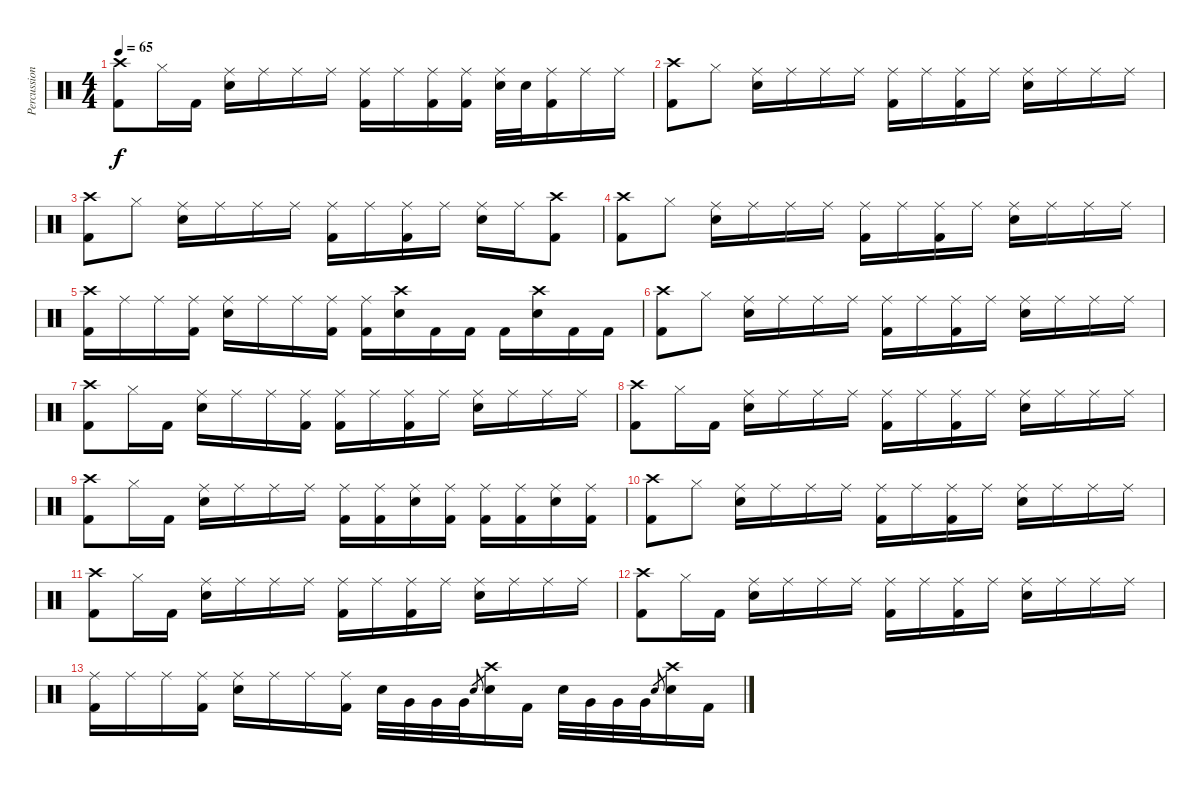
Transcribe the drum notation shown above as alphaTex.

\track ("Percussion" "Percussion") {instrument percussion}
\staff {score}
\articulation defaults
\ts (4 4)
\tempo 65
\clef neutral
\ks c
("Crash high (hit)" "Kick (hit) 2").8{dy f} "Hi-Hat (closed)".16 "Kick (hit) 2".16 ("Ride (middle)" "Electric Snare (hit)").16 "Ride (middle)".16 "Ride (middle)".16 "Ride (middle)".16 ("Ride (middle)" "Kick (hit) 2").16 "Ride (middle)".16 ("Ride (middle)" "Kick (hit) 2").16 ("Ride (middle)" "Kick (hit) 2").16 ("Ride (middle)" "Electric Snare (hit)").32 "Electric Snare (hit)".32 ("Ride (middle)" "Kick (hit) 2").16 "Ride (middle)".16 "Ride (middle)".16 |
("Crash high (hit)" "Kick (hit) 2").8 "Hi-Hat (closed)".8 ("Ride (middle)" "Electric Snare (hit)").16 "Ride (middle)".16 "Ride (middle)".16 "Ride (middle)".16 ("Ride (middle)" "Kick (hit) 2").16 "Ride (middle)".16 ("Ride (middle)" "Kick (hit) 2").16 "Ride (middle)".16 ("Ride (middle)" "Electric Snare (hit)").16 "Ride (middle)".16 "Ride (middle)".16 "Ride (middle)".16 |
("Crash high (hit)" "Kick (hit) 2").8 "Hi-Hat (closed)".8 ("Ride (middle)" "Electric Snare (hit)").16 "Ride (middle)".16 "Ride (middle)".16 "Ride (middle)".16 ("Ride (middle)" "Kick (hit) 2").16 "Ride (middle)".16 ("Ride (middle)" "Kick (hit) 2").16 "Ride (middle)".16 ("Ride (middle)" "Electric Snare (hit)").16 "Ride (middle)".16 ("Crash high (hit)" "Kick (hit) 2").8 |
("Crash high (hit)" "Kick (hit) 2").8 "Hi-Hat (closed)".8 ("Ride (middle)" "Electric Snare (hit)").16 "Ride (middle)".16 "Ride (middle)".16 "Ride (middle)".16 ("Ride (middle)" "Kick (hit) 2").16 "Ride (middle)".16 ("Ride (middle)" "Kick (hit) 2").16 "Ride (middle)".16 ("Ride (middle)" "Electric Snare (hit)").16 "Ride (middle)".16 "Ride (middle)".16 "Ride (middle)".16 |
("Crash high (hit)" "Kick (hit) 2").16 "Ride (middle)".16 "Ride (middle)".16 ("Ride (middle)" "Kick (hit) 2").16 ("Ride (middle)" "Electric Snare (hit)").16 "Ride (middle)".16 "Ride (middle)".16 ("Ride (middle)" "Kick (hit) 2").16 ("Ride (middle)" "Kick (hit) 2").16 ("Crash high (hit)" "Electric Snare (hit)").16 "Kick (hit) 2".16 "Kick (hit) 2".16 "Kick (hit) 2".16 ("Crash high (hit)" "Electric Snare (hit)").16 "Kick (hit) 2".16 "Kick (hit) 2".16 |
("Crash high (hit)" "Kick (hit) 2").8 "Hi-Hat (closed)".8 ("Ride (middle)" "Electric Snare (hit)").16 "Ride (middle)".16 "Ride (middle)".16 "Ride (middle)".16 ("Ride (middle)" "Kick (hit) 2").16 "Ride (middle)".16 ("Ride (middle)" "Kick (hit) 2").16 "Ride (middle)".16 ("Ride (middle)" "Electric Snare (hit)").16 "Ride (middle)".16 "Ride (middle)".16 "Ride (middle)".16 |
("Crash high (hit)" "Kick (hit) 2").8 "Hi-Hat (closed)".16 "Kick (hit) 2".16 ("Ride (middle)" "Electric Snare (hit)").16 "Ride (middle)".16 "Ride (middle)".16 ("Ride (middle)" "Kick (hit) 2").16 ("Ride (middle)" "Kick (hit) 2").16 "Ride (middle)".16 ("Ride (middle)" "Kick (hit) 2").16 "Ride (middle)".16 ("Ride (middle)" "Electric Snare (hit)").16 "Ride (middle)".16 "Ride (middle)".16 "Ride (middle)".16 |
("Crash high (hit)" "Kick (hit) 2").8 "Hi-Hat (closed)".16 "Kick (hit) 2".16 ("Ride (middle)" "Electric Snare (hit)").16 "Ride (middle)".16 "Ride (middle)".16 "Ride (middle)".16 ("Ride (middle)" "Kick (hit) 2").16 "Ride (middle)".16 ("Ride (middle)" "Kick (hit) 2").16 "Ride (middle)".16 ("Ride (middle)" "Electric Snare (hit)").16 "Ride (middle)".16 "Ride (middle)".16 "Ride (middle)".16 |
("Crash high (hit)" "Kick (hit) 2").8 "Hi-Hat (closed)".16 "Kick (hit) 2".16 ("Ride (middle)" "Electric Snare (hit)").16 "Ride (middle)".16 "Ride (middle)".16 "Ride (middle)".16 ("Ride (middle)" "Kick (hit) 2").16 ("Ride (middle)" "Kick (hit) 2").16 ("Ride (middle)" "Electric Snare (hit)").16 ("Ride (middle)" "Kick (hit) 2").16 ("Ride (middle)" "Kick (hit) 2").16 ("Ride (middle)" "Kick (hit) 2").16 ("Ride (middle)" "Electric Snare (hit)").16 ("Ride (middle)" "Kick (hit) 2").16 |
("Crash high (hit)" "Kick (hit) 2").8 "Hi-Hat (closed)".8 ("Ride (middle)" "Electric Snare (hit)").16 "Ride (middle)".16 "Ride (middle)".16 "Ride (middle)".16 ("Ride (middle)" "Kick (hit) 2").16 "Ride (middle)".16 ("Ride (middle)" "Kick (hit) 2").16 "Ride (middle)".16 ("Ride (middle)" "Electric Snare (hit)").16 "Ride (middle)".16 "Ride (middle)".16 "Ride (middle)".16 |
("Crash high (hit)" "Kick (hit) 2").8 "Hi-Hat (closed)".16 "Kick (hit) 2".16 ("Ride (middle)" "Electric Snare (hit)").16 "Ride (middle)".16 "Ride (middle)".16 "Ride (middle)".16 ("Ride (middle)" "Kick (hit) 2").16 "Ride (middle)".16 ("Ride (middle)" "Kick (hit) 2").16 "Ride (middle)".16 ("Ride (middle)" "Electric Snare (hit)").16 "Ride (middle)".16 "Ride (middle)".16 "Ride (middle)".16 |
("Crash high (hit)" "Kick (hit) 2").8 "Hi-Hat (closed)".16 "Kick (hit) 2".16 ("Ride (middle)" "Electric Snare (hit)").16 "Ride (middle)".16 "Ride (middle)".16 "Ride (middle)".16 ("Ride (middle)" "Kick (hit) 2").16 "Ride (middle)".16 ("Ride (middle)" "Kick (hit) 2").16 "Ride (middle)".16 ("Ride (middle)" "Electric Snare (hit)").16 "Ride (middle)".16 "Ride (middle)".16 "Ride (middle)".16 |
("Ride (middle)" "Kick (hit) 2").16 "Ride (middle)".16 "Ride (middle)".16 ("Ride (middle)" "Kick (hit) 2").16 ("Ride (middle)" "Electric Snare (hit)").16 "Ride (middle)".16 "Ride (middle)".16 ("Ride (middle)" "Kick (hit) 2").16 "Electric Snare (hit)".32 "Very Low Tom (hit)".32 "Very Low Tom (hit)".32 "Very Low Tom (hit)".32 "Electric Snare (hit)".8{gr} ("Crash high (hit)" "Electric Snare (hit)").16 "Kick (hit) 2".16 "Electric Snare (hit)".32 "Very Low Tom (hit)".32 "Very Low Tom (hit)".32 "Very Low Tom (hit)".32 "Electric Snare (hit)".8{gr} ("Crash high (hit)" "Electric Snare (hit)").16 "Kick (hit) 2".16
